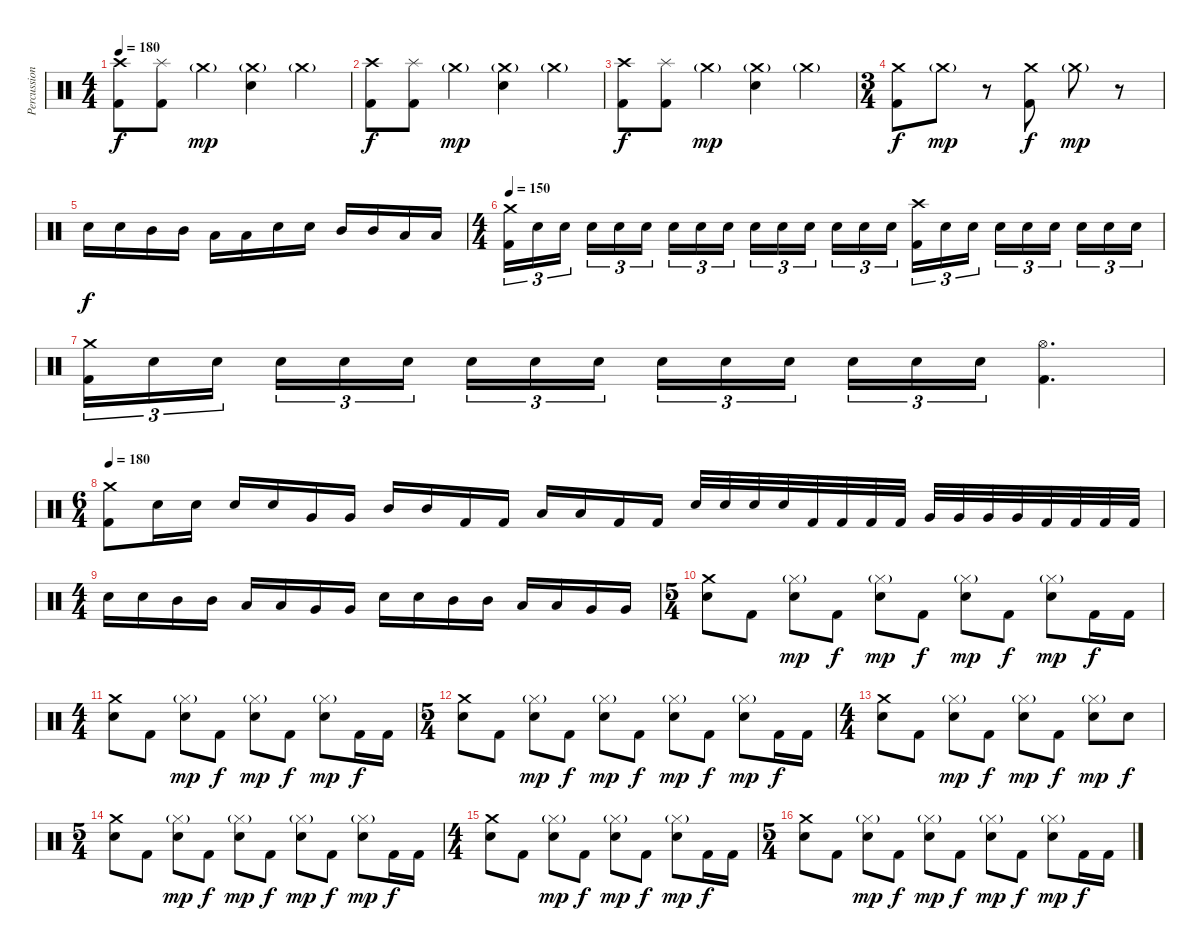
\track ("Percussion" "Percussion") {instrument percussion}
\staff {score}
\articulation defaults
\ts (4 4)
\tempo 180
\clef neutral
\ks c
("Crash high (hit)" "Kick (hit) 2").8{dy f} ("Splash (hit)" "Kick (hit) 2").8 "Crash medium (hit)"{g}.4{dy mp} ("Crash medium (hit)"{g} "Electric Snare (hit)").4 "Crash medium (hit)"{g}.4 |
("Crash high (hit)" "Kick (hit) 2").8{dy f} ("Splash (hit)" "Kick (hit) 2").8 "Crash medium (hit)"{g}.4{dy mp} ("Crash medium (hit)"{g} "Electric Snare (hit)").4 "Crash medium (hit)"{g}.4 |
("Crash high (hit)" "Kick (hit) 2").8{dy f} ("Splash (hit)" "Kick (hit) 2").8 "Crash medium (hit)"{g}.4{dy mp} ("Crash medium (hit)"{g} "Electric Snare (hit)").4 "Crash medium (hit)"{g}.4 |
\ts (3 4)
("Crash medium (hit)" "Kick (hit) 2").8{dy f} "Crash medium (hit)"{g}.8{dy mp} r.8 ("Crash medium (hit)" "Kick (hit) 2").8{dy f} "Crash medium (hit)"{g}.8{dy mp} r.8 |
"Electric Snare (hit)".16{dy f} "Electric Snare (hit)".16 "Mid Tom (hit)".16 "Mid Tom (hit)".16 "Low Tom (hit)".16 "Low Tom (hit)".16 "Electric Snare (hit)".16 "Electric Snare (hit)".16 "Mid Tom (hit)".16 "Mid Tom (hit)".16 "Low Tom (hit)".16 "Low Tom (hit)".16 |
\ts (4 4)
\tempo 150
("Crash medium (hit)" "Kick (hit) 2").16{tu (3 2)} "Electric Snare (hit)".16{tu (3 2)} "Electric Snare (hit)".16{tu (3 2) beam splitsecondary} "Electric Snare (hit)".16{tu (3 2)} "Electric Snare (hit)".16{tu (3 2)} "Electric Snare (hit)".16{tu (3 2)} "Electric Snare (hit)".16{tu (3 2)} "Electric Snare (hit)".16{tu (3 2)} "Electric Snare (hit)".16{tu (3 2) beam splitsecondary} "Electric Snare (hit)".16{tu (3 2)} "Electric Snare (hit)".16{tu (3 2)} "Electric Snare (hit)".16{tu (3 2)} "Electric Snare (hit)".16{tu (3 2)} "Electric Snare (hit)".16{tu (3 2)} "Electric Snare (hit)".16{tu (3 2) beam splitsecondary} ("Crash high (hit)" "Kick (hit) 2").16{tu (3 2)} "Electric Snare (hit)".16{tu (3 2)} "Electric Snare (hit)".16{tu (3 2)} "Electric Snare (hit)".16{tu (3 2)} "Electric Snare (hit)".16{tu (3 2)} "Electric Snare (hit)".16{tu (3 2) beam splitsecondary} "Electric Snare (hit)".16{tu (3 2)} "Electric Snare (hit)".16{tu (3 2)} "Electric Snare (hit)".16{tu (3 2)} |
("Crash medium (hit)" "Kick (hit) 2").16{tu (3 2)} "Electric Snare (hit)".16{tu (3 2)} "Electric Snare (hit)".16{tu (3 2) beam splitsecondary} "Electric Snare (hit)".16{tu (3 2)} "Electric Snare (hit)".16{tu (3 2)} "Electric Snare (hit)".16{tu (3 2)} "Electric Snare (hit)".16{tu (3 2)} "Electric Snare (hit)".16{tu (3 2)} "Electric Snare (hit)".16{tu (3 2) beam splitsecondary} "Electric Snare (hit)".16{tu (3 2)} "Electric Snare (hit)".16{tu (3 2)} "Electric Snare (hit)".16{tu (3 2)} "Electric Snare (hit)".16{tu (3 2)} "Electric Snare (hit)".16{tu (3 2)} "Electric Snare (hit)".16{tu (3 2)} ("Hi-Hat (open)" "Kick (hit) 2").4{d} |
\ts (6 4)
\tempo 180
("Crash medium (hit)" "Kick (hit) 2").8 "Electric Snare (hit)".16 "Electric Snare (hit)".16 "Electric Snare (hit)".16 "Electric Snare (hit)".16 "Very Low Tom (hit)".16 "Very Low Tom (hit)".16 "Mid Tom (hit)".16 "Mid Tom (hit)".16 "Kick (hit) 2".16 "Kick (hit) 2".16 "Low Tom (hit)".16 "Low Tom (hit)".16 "Kick (hit) 2".16 "Kick (hit) 2".16 "Electric Snare (hit)".32 "Electric Snare (hit)".32 "Electric Snare (hit)".32 "Electric Snare (hit)".32 "Kick (hit) 2".32 "Kick (hit) 2".32 "Kick (hit) 2".32 "Kick (hit) 2".32 "Very Low Tom (hit)".32 "Very Low Tom (hit)".32 "Very Low Tom (hit)".32 "Very Low Tom (hit)".32 "Kick (hit) 2".32 "Kick (hit) 2".32 "Kick (hit) 2".32 "Kick (hit) 2".32 |
\ts (4 4)
"Electric Snare (hit)".16 "Electric Snare (hit)".16 "Mid Tom (hit)".16 "Mid Tom (hit)".16 "Low Tom (hit)".16 "Low Tom (hit)".16 "Very Low Tom (hit)".16 "Very Low Tom (hit)".16 "Electric Snare (hit)".16 "Electric Snare (hit)".16 "Mid Tom (hit)".16 "Mid Tom (hit)".16 "Low Tom (hit)".16 "Low Tom (hit)".16 "Very Low Tom (hit)".16 "Very Low Tom (hit)".16 |
\ts (5 4)
("Crash medium (hit)" "Electric Snare (hit)").8 "Kick (hit) 2".8 ("Hi-Hat (closed)"{g} "Electric Snare (hit)").8{dy mp} "Kick (hit) 2".8{dy f} ("Hi-Hat (closed)"{g} "Electric Snare (hit)").8{dy mp} "Kick (hit) 2".8{dy f} ("Hi-Hat (closed)"{g} "Electric Snare (hit)").8{dy mp} "Kick (hit) 2".8{dy f} ("Hi-Hat (closed)"{g} "Electric Snare (hit)").8{dy mp} "Kick (hit) 2".16{dy f} "Kick (hit) 2".16 |
\ts (4 4)
("Crash medium (hit)" "Electric Snare (hit)").8 "Kick (hit) 2".8 ("Hi-Hat (closed)"{g} "Electric Snare (hit)").8{dy mp} "Kick (hit) 2".8{dy f} ("Hi-Hat (closed)"{g} "Electric Snare (hit)").8{dy mp} "Kick (hit) 2".8{dy f} ("Hi-Hat (closed)"{g} "Electric Snare (hit)").8{dy mp} "Kick (hit) 2".16{dy f} "Kick (hit) 2".16 |
\ts (5 4)
("Crash medium (hit)" "Electric Snare (hit)").8 "Kick (hit) 2".8 ("Hi-Hat (closed)"{g} "Electric Snare (hit)").8{dy mp} "Kick (hit) 2".8{dy f} ("Hi-Hat (closed)"{g} "Electric Snare (hit)").8{dy mp} "Kick (hit) 2".8{dy f} ("Hi-Hat (closed)"{g} "Electric Snare (hit)").8{dy mp} "Kick (hit) 2".8{dy f} ("Hi-Hat (closed)"{g} "Electric Snare (hit)").8{dy mp} "Kick (hit) 2".16{dy f} "Kick (hit) 2".16 |
\ts (4 4)
("Crash medium (hit)" "Electric Snare (hit)").8 "Kick (hit) 2".8 ("Hi-Hat (closed)"{g} "Electric Snare (hit)").8{dy mp} "Kick (hit) 2".8{dy f} ("Hi-Hat (closed)"{g} "Electric Snare (hit)").8{dy mp} "Kick (hit) 2".8{dy f} ("Hi-Hat (closed)"{g} "Electric Snare (hit)").8{dy mp} "Electric Snare (hit)".8{dy f} |
\ts (5 4)
("Crash medium (hit)" "Electric Snare (hit)").8 "Kick (hit) 2".8 ("Hi-Hat (closed)"{g} "Electric Snare (hit)").8{dy mp} "Kick (hit) 2".8{dy f} ("Hi-Hat (closed)"{g} "Electric Snare (hit)").8{dy mp} "Kick (hit) 2".8{dy f} ("Hi-Hat (closed)"{g} "Electric Snare (hit)").8{dy mp} "Kick (hit) 2".8{dy f} ("Hi-Hat (closed)"{g} "Electric Snare (hit)").8{dy mp} "Kick (hit) 2".16{dy f} "Kick (hit) 2".16 |
\ts (4 4)
("Crash medium (hit)" "Electric Snare (hit)").8 "Kick (hit) 2".8 ("Hi-Hat (closed)"{g} "Electric Snare (hit)").8{dy mp} "Kick (hit) 2".8{dy f} ("Hi-Hat (closed)"{g} "Electric Snare (hit)").8{dy mp} "Kick (hit) 2".8{dy f} ("Hi-Hat (closed)"{g} "Electric Snare (hit)").8{dy mp} "Kick (hit) 2".16{dy f} "Kick (hit) 2".16 |
\ts (5 4)
("Crash medium (hit)" "Electric Snare (hit)").8 "Kick (hit) 2".8 ("Hi-Hat (closed)"{g} "Electric Snare (hit)").8{dy mp} "Kick (hit) 2".8{dy f} ("Hi-Hat (closed)"{g} "Electric Snare (hit)").8{dy mp} "Kick (hit) 2".8{dy f} ("Hi-Hat (closed)"{g} "Electric Snare (hit)").8{dy mp} "Kick (hit) 2".8{dy f} ("Hi-Hat (closed)"{g} "Electric Snare (hit)").8{dy mp} "Kick (hit) 2".16{dy f} "Kick (hit) 2".16
